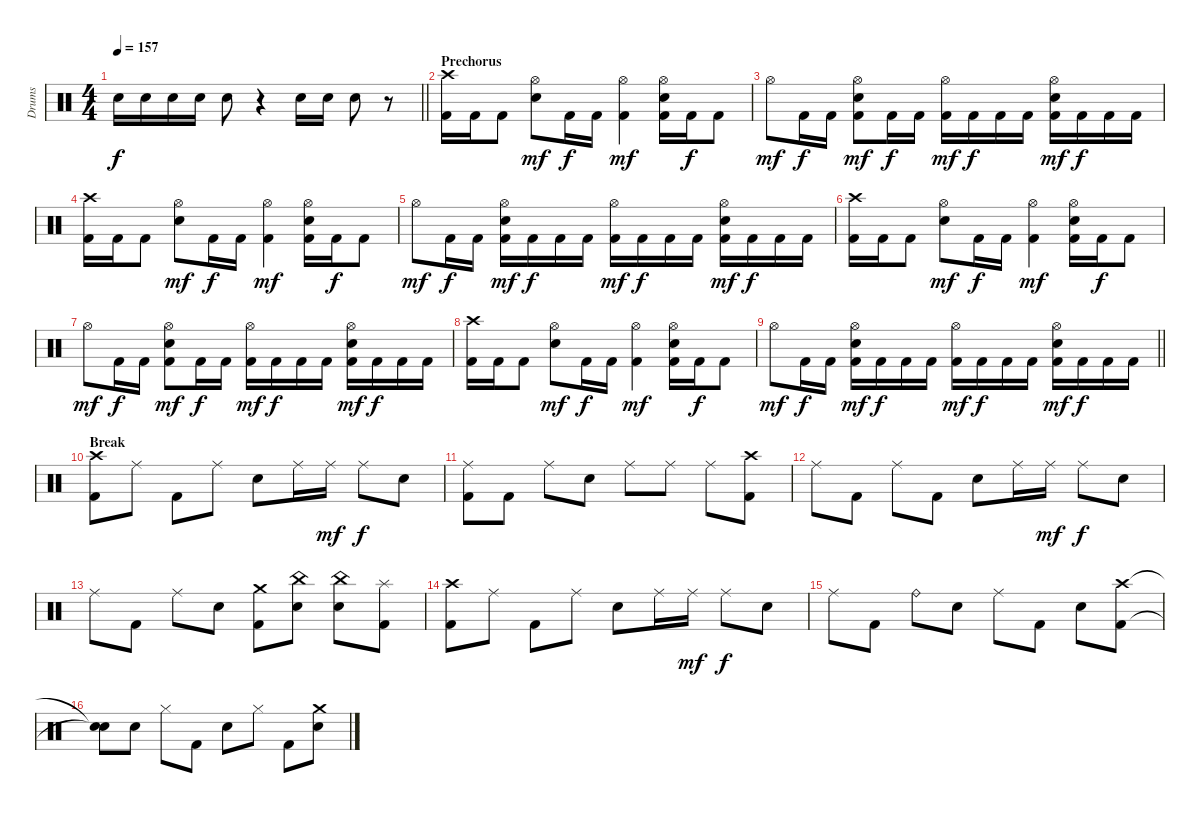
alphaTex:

\track ("Drums" "Drums") {instrument percussion}
\staff {score}
\articulation defaults
\ts (4 4)
\tempo 157
\clef neutral
\barLineRight lightlight
\ks c "Electric Snare (hit)".16{dy f} "Electric Snare (hit)".16 "Electric Snare (hit)".16 "Electric Snare (hit)".16 "Electric Snare (hit)".8
r.4 "Electric Snare (hit)".16 "Electric Snare (hit)".16 "Electric Snare (hit)".8 r.8 |
\section ("" "Prechorus")
("Kick (hit) 2" "Crash high (hit)").16 "Kick (hit) 2".16 "Kick (hit) 2".8 ("Hi-Hat (open)" "Electric Snare (hit)").8{dy mf} "Kick (hit) 2".16{dy f} "Kick (hit) 2".16 ("Kick (hit) 2" "Hi-Hat (open)").4{dy mf} ("Kick (hit) 2" "Hi-Hat (open)" "Electric Snare (hit)").16 "Kick (hit) 2".16{dy f} "Kick (hit) 2".8 |
"Hi-Hat (open)".8{dy mf} "Kick (hit) 2".16{dy f} "Kick (hit) 2".16 ("Kick (hit) 2" "Hi-Hat (open)" "Electric Snare (hit)").8{dy mf} "Kick (hit) 2".16{dy f} "Kick (hit) 2".16 ("Kick (hit) 2" "Hi-Hat (open)").16{dy mf} "Kick (hit) 2".16{dy f} "Kick (hit) 2".16 "Kick (hit) 2".16 ("Kick (hit) 2" "Hi-Hat (open)" "Electric Snare (hit)").16{dy mf} "Kick (hit) 2".16{dy f} "Kick (hit) 2".16 "Kick (hit) 2".16 |
("Kick (hit) 2" "Crash high (hit)").16 "Kick (hit) 2".16 "Kick (hit) 2".8 ("Hi-Hat (open)" "Electric Snare (hit)").8{dy mf} "Kick (hit) 2".16{dy f} "Kick (hit) 2".16 ("Kick (hit) 2" "Hi-Hat (open)").4{dy mf} ("Kick (hit) 2" "Hi-Hat (open)" "Electric Snare (hit)").16 "Kick (hit) 2".16{dy f} "Kick (hit) 2".8 |
"Hi-Hat (open)".8{dy mf} "Kick (hit) 2".16{dy f} "Kick (hit) 2".16 ("Kick (hit) 2" "Hi-Hat (open)" "Electric Snare (hit)").16{dy mf} "Kick (hit) 2".16{dy f} "Kick (hit) 2".16 "Kick (hit) 2".16 ("Kick (hit) 2" "Hi-Hat (open)").16{dy mf} "Kick (hit) 2".16{dy f} "Kick (hit) 2".16 "Kick (hit) 2".16 ("Kick (hit) 2" "Hi-Hat (open)" "Electric Snare (hit)").16{dy mf} "Kick (hit) 2".16{dy f} "Kick (hit) 2".16 "Kick (hit) 2".16 |
("Kick (hit) 2" "Crash high (hit)").16 "Kick (hit) 2".16 "Kick (hit) 2".8 ("Hi-Hat (open)" "Electric Snare (hit)").8{dy mf} "Kick (hit) 2".16{dy f} "Kick (hit) 2".16 ("Kick (hit) 2" "Hi-Hat (open)").4{dy mf} ("Kick (hit) 2" "Hi-Hat (open)" "Electric Snare (hit)").16 "Kick (hit) 2".16{dy f} "Kick (hit) 2".8 |
"Hi-Hat (open)".8{dy mf} "Kick (hit) 2".16{dy f} "Kick (hit) 2".16 ("Kick (hit) 2" "Hi-Hat (open)" "Electric Snare (hit)").8{dy mf} "Kick (hit) 2".16{dy f} "Kick (hit) 2".16 ("Kick (hit) 2" "Hi-Hat (open)").16{dy mf} "Kick (hit) 2".16{dy f} "Kick (hit) 2".16 "Kick (hit) 2".16 ("Kick (hit) 2" "Hi-Hat (open)" "Electric Snare (hit)").16{dy mf} "Kick (hit) 2".16{dy f} "Kick (hit) 2".16 "Kick (hit) 2".16 |
("Kick (hit) 2" "Crash high (hit)").16 "Kick (hit) 2".16 "Kick (hit) 2".8 ("Hi-Hat (open)" "Electric Snare (hit)").8{dy mf} "Kick (hit) 2".16{dy f} "Kick (hit) 2".16 ("Kick (hit) 2" "Hi-Hat (open)").4{dy mf} ("Kick (hit) 2" "Hi-Hat (open)" "Electric Snare (hit)").16 "Kick (hit) 2".16{dy f} "Kick (hit) 2".8 |
\barLineRight lightlight "Hi-Hat (open)".8{dy mf} "Kick (hit) 2".16{dy f} "Kick (hit) 2".16
("Kick (hit) 2" "Hi-Hat (open)" "Electric Snare (hit)").16{dy mf} "Kick (hit) 2".16{dy f} "Kick (hit) 2".16 "Kick (hit) 2".16 ("Kick (hit) 2" "Hi-Hat (open)").16{dy mf} "Kick (hit) 2".16{dy f} "Kick (hit) 2".16 "Kick (hit) 2".16 ("Kick (hit) 2" "Hi-Hat (open)" "Electric Snare (hit)").16{dy mf} "Kick (hit) 2".16{dy f} "Kick (hit) 2".16 "Kick (hit) 2".16 |
\section ("" "Break")
("Kick (hit) 2" "Crash high (hit)").8 "Ride (middle)".8 "Kick (hit) 2".8 "Ride (middle)".8 "Electric Snare (hit)".8 "Ride (middle)".16 "Ride (middle)".16{dy mf} "Ride (middle)".8{dy f} "Electric Snare (hit)".8 |
("Kick (hit) 2" "Ride (middle)").8 "Kick (hit) 2".8 "Ride (middle)".8 "Electric Snare (hit)".8 "Ride (middle)".8 "Ride (middle)".8 "Ride (middle)".8 ("Kick (hit) 2" "Crash high (hit)").8 |
"Ride (middle)".8 "Kick (hit) 2".8 "Ride (middle)".8 "Kick (hit) 2".8 "Electric Snare (hit)".8 "Ride (middle)".16 "Ride (middle)".16{dy mf} "Ride (middle)".8{dy f} "Electric Snare (hit)".8 |
"Ride (middle)".8 "Kick (hit) 2".8 "Ride (middle)".8 "Electric Snare (hit)".8 ("Kick (hit) 2" "Crash medium (hit)").8 ("China (hit)" "Electric Snare (hit)").8 ("China (hit)" "Electric Snare (hit)").8 ("Kick (hit) 2" "Splash (hit)").8 |
("Kick (hit) 2" "Crash high (hit)").8 "Ride (middle)".8 "Kick (hit) 2".8 "Ride (middle)".8 "Electric Snare (hit)".8 "Ride (middle)".16 "Ride (middle)".16{dy mf} "Ride (middle)".8{dy f} "Electric Snare (hit)".8 |
"Ride (middle)".8 "Kick (hit) 2".8 "Ride (bell)".8 "Electric Snare (hit)".8 "Ride (middle)".8 "Kick (hit) 2".8 "Electric Snare (hit)".8 ("Kick (hit) 2" "Crash high (hit)").8 |
("Snare (hit)"{t} "Snare (hit)"{t}).8 "Electric Snare (hit)".8 "Hi-Hat (closed)".8 "Kick (hit) 2".8 "Electric Snare (hit)".8 "Hi-Hat (closed)".8 "Kick (hit) 2".8 ("Crash medium (hit)" "Electric Snare (hit)").8
